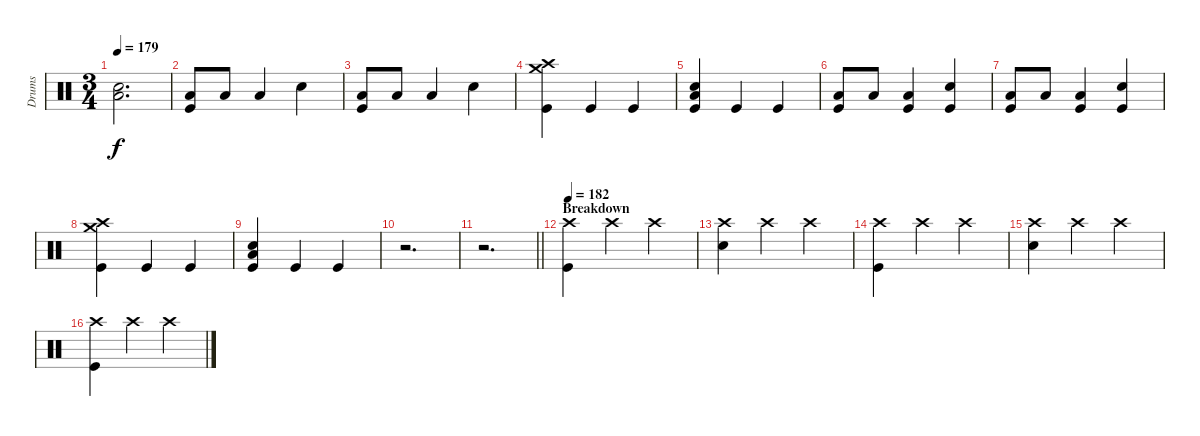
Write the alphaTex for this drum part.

\track ("Drums" "Drums") {instrument percussion}
\staff {score}
\articulation defaults
\ts (3 4)
\tempo 179
\clef neutral
\ks c
("Electric Snare (hit)" "Low Floor Tom (hit)").2{d dy f} |
("Low Floor Tom (hit)" "Kick (hit)").8 "Low Tom (hit)".8 "Low Floor Tom (hit)".4 "Electric Snare (hit)".4 |
("Low Floor Tom (hit)" "Kick (hit)").8 "Low Tom (hit)".8 "Low Floor Tom (hit)".4 "Electric Snare (hit)".4 |
("Crash high (hit)" "Crash medium (hit)" "Kick (hit)").4 "Kick (hit)".4 "Kick (hit)".4 |
("Electric Snare (hit)" "Low Floor Tom (hit)" "Kick (hit)").4 "Kick (hit)".4 "Kick (hit)".4 |
("Low Floor Tom (hit)" "Kick (hit)").8 "Low Tom (hit)".8 ("Low Floor Tom (hit)" "Kick (hit)").4 ("Electric Snare (hit)" "Kick (hit)").4 |
("Low Floor Tom (hit)" "Kick (hit)").8 "Low Tom (hit)".8 ("Low Floor Tom (hit)" "Kick (hit)").4 ("Electric Snare (hit)" "Kick (hit)").4 |
("Crash high (hit)" "Crash medium (hit)" "Kick (hit)").4 "Kick (hit)".4 "Kick (hit)".4 |
("Electric Snare (hit)" "Low Floor Tom (hit)" "Kick (hit)").4 "Kick (hit)".4 "Kick (hit)".4 |
r.2{d} |
\barLineRight lightlight
r.2{d} |
\section ("" "Breakdown")
\tempo 182
("Crash high (hit)" "Kick (hit)").4 "Crash high (hit)".4 "Crash high (hit)".4 |
("Crash high (hit)" "Electric Snare (hit)").4 "Crash high (hit)".4 "Crash high (hit)".4 |
("Crash high (hit)" "Kick (hit)").4 "Crash high (hit)".4 "Crash high (hit)".4 |
("Crash high (hit)" "Electric Snare (hit)").4 "Crash high (hit)".4 "Crash high (hit)".4 |
("Crash high (hit)" "Kick (hit)").4 "Crash high (hit)".4 "Crash high (hit)".4
